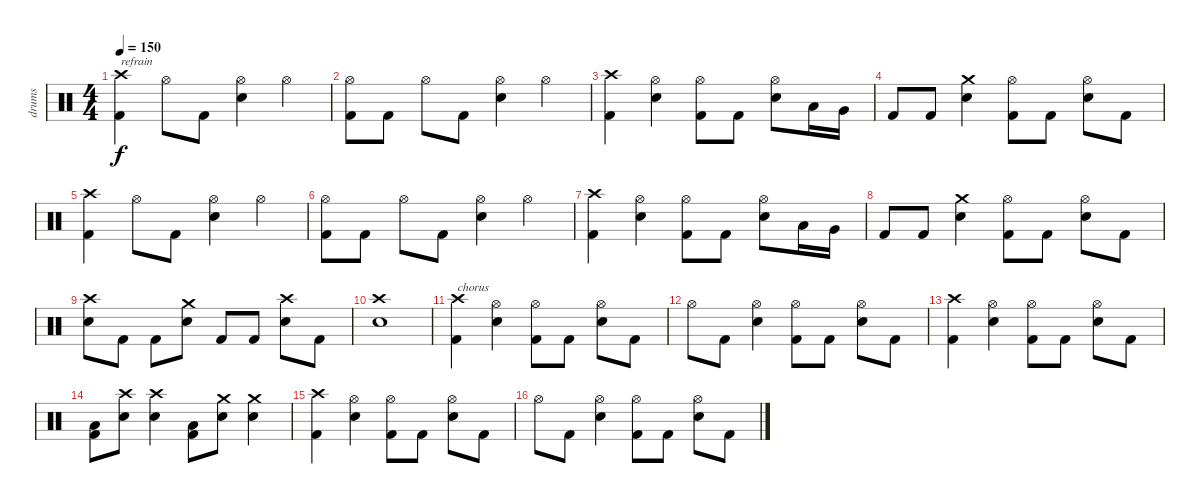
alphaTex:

\track ("drums" "drums") {instrument percussion}
\staff {score}
\articulation defaults
\ts (4 4)
\tempo 150
\clef neutral
\ks c
("Crash high (hit)" "Kick (hit) 2").4{txt "refrain" dy f} "Hi-Hat (open)".8 "Kick (hit) 2".8 ("Hi-Hat (open)" "Electric Snare (hit)").4 "Hi-Hat (open)".4 |
("Hi-Hat (open)" "Kick (hit) 2").8 "Kick (hit) 2".8 "Hi-Hat (open)".8 "Kick (hit) 2".8 ("Hi-Hat (open)" "Electric Snare (hit)").4 "Hi-Hat (open)".4 |
("Crash high (hit)" "Kick (hit) 2").4 ("Hi-Hat (open)" "Electric Snare (hit)").4 ("Hi-Hat (open)" "Kick (hit) 2").8 "Kick (hit) 2".8 ("Hi-Hat (open)" "Electric Snare (hit)").8 "Low Tom (hit)".16 "Very Low Tom (hit)".16 |
"Kick (hit) 2".8 "Kick (hit) 2".8 ("Crash medium (hit)" "Electric Snare (hit)").4 ("Hi-Hat (open)" "Kick (hit) 2").8 "Kick (hit) 2".8 ("Hi-Hat (open)" "Electric Snare (hit)").8 "Kick (hit) 2".8 |
("Crash high (hit)" "Kick (hit) 2").4 "Hi-Hat (open)".8 "Kick (hit) 2".8 ("Hi-Hat (open)" "Electric Snare (hit)").4 "Hi-Hat (open)".4 |
("Hi-Hat (open)" "Kick (hit) 2").8 "Kick (hit) 2".8 "Hi-Hat (open)".8 "Kick (hit) 2".8 ("Hi-Hat (open)" "Electric Snare (hit)").4 "Hi-Hat (open)".4 |
("Crash high (hit)" "Kick (hit) 2").4 ("Hi-Hat (open)" "Electric Snare (hit)").4 ("Hi-Hat (open)" "Kick (hit) 2").8 "Kick (hit) 2".8 ("Hi-Hat (open)" "Electric Snare (hit)").8 "Low Tom (hit)".16 "Very Low Tom (hit)".16 |
"Kick (hit) 2".8 "Kick (hit) 2".8 ("Crash medium (hit)" "Electric Snare (hit)").4 ("Hi-Hat (open)" "Kick (hit) 2").8 "Kick (hit) 2".8 ("Hi-Hat (open)" "Electric Snare (hit)").8 "Kick (hit) 2".8 |
("Crash high (hit)" "Electric Snare (hit)").8 "Kick (hit) 2".8 "Kick (hit) 2".8 ("Crash medium (hit)" "Electric Snare (hit)").8 "Kick (hit) 2".8 "Kick (hit) 2".8 ("Crash high (hit)" "Electric Snare (hit)").8 "Kick (hit) 2".8 |
("Crash high (hit)" "Electric Snare (hit)").1 |
("Crash high (hit)" "Kick (hit) 2").4{txt "chorus"} ("Hi-Hat (open)" "Electric Snare (hit)").4 ("Hi-Hat (open)" "Kick (hit) 2").8 "Kick (hit) 2".8 ("Hi-Hat (open)" "Electric Snare (hit)").8 "Kick (hit) 2".8 |
"Hi-Hat (open)".8 "Kick (hit) 2".8 ("Hi-Hat (open)" "Electric Snare (hit)").4 ("Hi-Hat (open)" "Kick (hit) 2").8 "Kick (hit) 2".8 ("Hi-Hat (open)" "Electric Snare (hit)").8 "Kick (hit) 2".8 |
("Crash high (hit)" "Kick (hit) 2").4 ("Hi-Hat (open)" "Electric Snare (hit)").4 ("Hi-Hat (open)" "Kick (hit) 2").8 "Kick (hit) 2".8 ("Hi-Hat (open)" "Electric Snare (hit)").8 "Kick (hit) 2".8 |
("Kick (hit) 2" "Low Floor Tom (hit)").8 ("Crash high (hit)" "Electric Snare (hit)").8 ("Crash high (hit)" "Electric Snare (hit)").4 ("Kick (hit) 2" "Low Floor Tom (hit)").8 ("Crash medium (hit)" "Electric Snare (hit)").8 ("Crash medium (hit)" "Electric Snare (hit)").4 |
("Crash high (hit)" "Kick (hit) 2").4 ("Hi-Hat (open)" "Electric Snare (hit)").4 ("Hi-Hat (open)" "Kick (hit) 2").8 "Kick (hit) 2".8 ("Hi-Hat (open)" "Electric Snare (hit)").8 "Kick (hit) 2".8 |
"Hi-Hat (open)".8 "Kick (hit) 2".8 ("Hi-Hat (open)" "Electric Snare (hit)").4 ("Hi-Hat (open)" "Kick (hit) 2").8 "Kick (hit) 2".8 ("Hi-Hat (open)" "Electric Snare (hit)").8 "Kick (hit) 2".8
